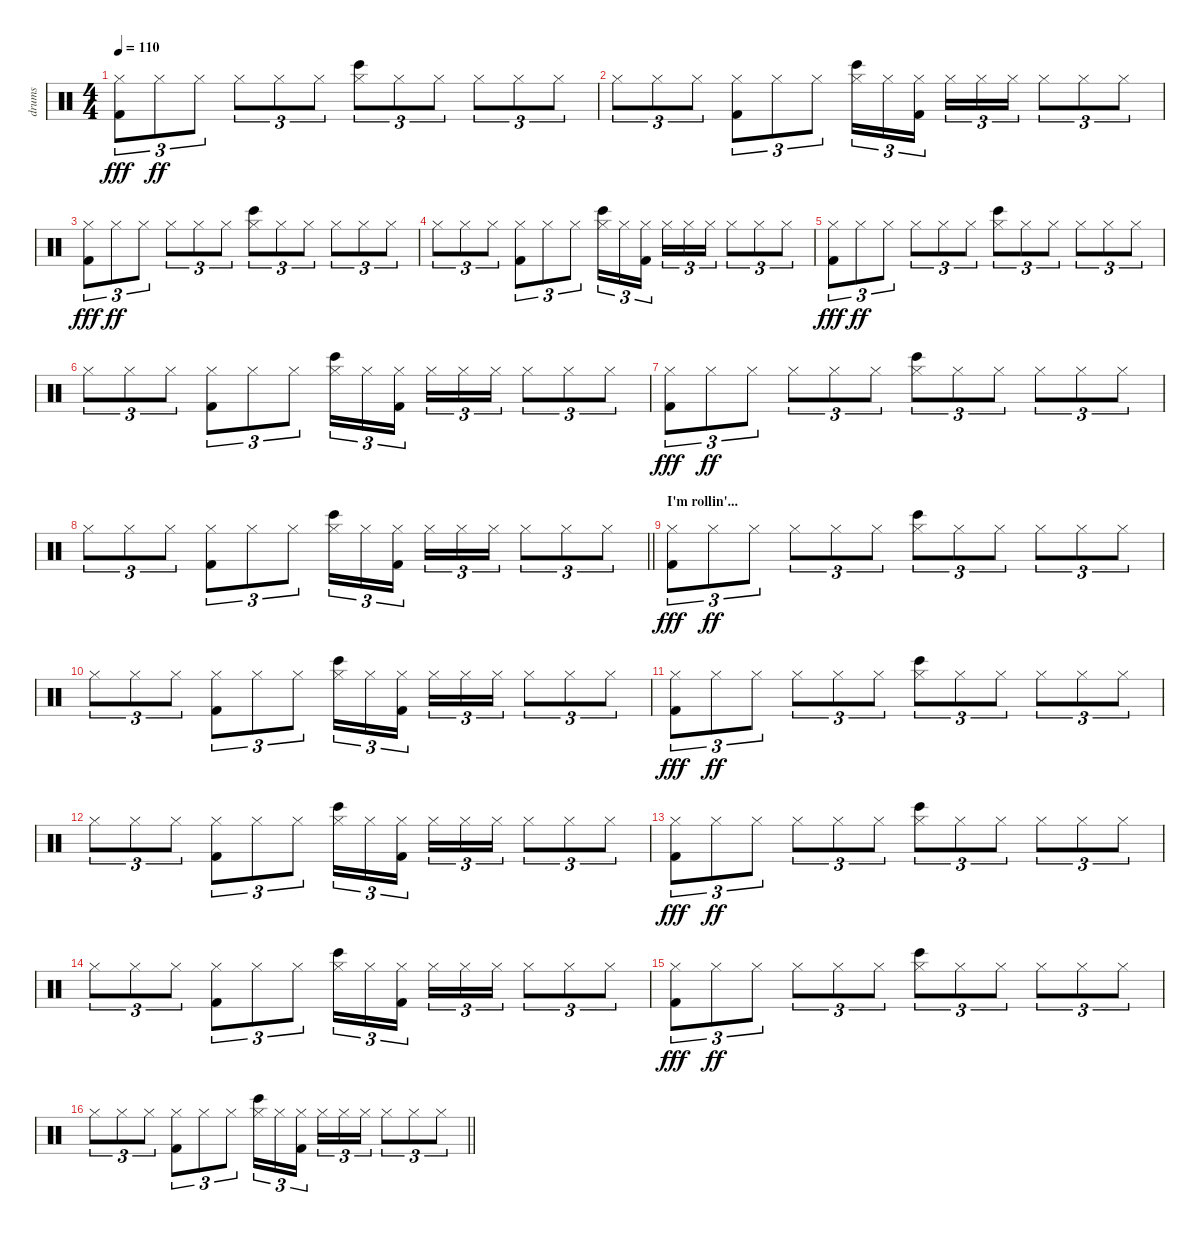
\track ("drums" "drums") {instrument percussion}
\staff {score}
\articulation defaults
\ts (4 4)
\section ("" "")
\tempo 110
\clef neutral
\ks c
("Hi-Hat (closed)" "Kick (hit) 2").8{tu (3 2) dy fff} "Hi-Hat (closed)".8{tu (3 2) dy ff} "Hi-Hat (closed)".8{tu (3 2)} "Hi-Hat (closed)".8{tu (3 2)} "Hi-Hat (closed)".8{tu (3 2)} "Hi-Hat (closed)".8{tu (3 2)} ("Hi-Hat (closed)" "Bongo High (hit)").8{tu (3 2)} "Hi-Hat (closed)".8{tu (3 2)} "Hi-Hat (closed)".8{tu (3 2)} "Hi-Hat (closed)".8{tu (3 2)} "Hi-Hat (closed)".8{tu (3 2)} "Hi-Hat (closed)".8{tu (3 2)} |
"Hi-Hat (closed)".8{tu (3 2)} "Hi-Hat (closed)".8{tu (3 2)} "Hi-Hat (closed)".8{tu (3 2)} ("Hi-Hat (closed)" "Kick (hit) 2").8{tu (3 2)} "Hi-Hat (closed)".8{tu (3 2)} "Hi-Hat (closed)".8{tu (3 2)} ("Hi-Hat (closed)" "Bongo High (hit)").16{tu (3 2)} "Hi-Hat (closed)".16{tu (3 2)} ("Hi-Hat (closed)" "Kick (hit) 2").16{tu (3 2) beam splitsecondary} "Hi-Hat (closed)".16{tu (3 2)} "Hi-Hat (closed)".16{tu (3 2)} "Hi-Hat (closed)".16{tu (3 2)} "Hi-Hat (closed)".8{tu (3 2)} "Hi-Hat (closed)".8{tu (3 2)} "Hi-Hat (closed)".8{tu (3 2)} |
("Hi-Hat (closed)" "Kick (hit) 2").8{tu (3 2) dy fff} "Hi-Hat (closed)".8{tu (3 2) dy ff} "Hi-Hat (closed)".8{tu (3 2)} "Hi-Hat (closed)".8{tu (3 2)} "Hi-Hat (closed)".8{tu (3 2)} "Hi-Hat (closed)".8{tu (3 2)} ("Hi-Hat (closed)" "Bongo High (hit)").8{tu (3 2)} "Hi-Hat (closed)".8{tu (3 2)} "Hi-Hat (closed)".8{tu (3 2)} "Hi-Hat (closed)".8{tu (3 2)} "Hi-Hat (closed)".8{tu (3 2)} "Hi-Hat (closed)".8{tu (3 2)} |
"Hi-Hat (closed)".8{tu (3 2)} "Hi-Hat (closed)".8{tu (3 2)} "Hi-Hat (closed)".8{tu (3 2)} ("Hi-Hat (closed)" "Kick (hit) 2").8{tu (3 2)} "Hi-Hat (closed)".8{tu (3 2)} "Hi-Hat (closed)".8{tu (3 2)} ("Hi-Hat (closed)" "Bongo High (hit)").16{tu (3 2)} "Hi-Hat (closed)".16{tu (3 2)} ("Hi-Hat (closed)" "Kick (hit) 2").16{tu (3 2) beam splitsecondary} "Hi-Hat (closed)".16{tu (3 2)} "Hi-Hat (closed)".16{tu (3 2)} "Hi-Hat (closed)".16{tu (3 2)} "Hi-Hat (closed)".8{tu (3 2)} "Hi-Hat (closed)".8{tu (3 2)} "Hi-Hat (closed)".8{tu (3 2)} |
("Hi-Hat (closed)" "Kick (hit) 2").8{tu (3 2) dy fff} "Hi-Hat (closed)".8{tu (3 2) dy ff} "Hi-Hat (closed)".8{tu (3 2)} "Hi-Hat (closed)".8{tu (3 2)} "Hi-Hat (closed)".8{tu (3 2)} "Hi-Hat (closed)".8{tu (3 2)} ("Hi-Hat (closed)" "Bongo High (hit)").8{tu (3 2)} "Hi-Hat (closed)".8{tu (3 2)} "Hi-Hat (closed)".8{tu (3 2)} "Hi-Hat (closed)".8{tu (3 2)} "Hi-Hat (closed)".8{tu (3 2)} "Hi-Hat (closed)".8{tu (3 2)} |
"Hi-Hat (closed)".8{tu (3 2)} "Hi-Hat (closed)".8{tu (3 2)} "Hi-Hat (closed)".8{tu (3 2)} ("Hi-Hat (closed)" "Kick (hit) 2").8{tu (3 2)} "Hi-Hat (closed)".8{tu (3 2)} "Hi-Hat (closed)".8{tu (3 2)} ("Hi-Hat (closed)" "Bongo High (hit)").16{tu (3 2)} "Hi-Hat (closed)".16{tu (3 2)} ("Hi-Hat (closed)" "Kick (hit) 2").16{tu (3 2) beam splitsecondary} "Hi-Hat (closed)".16{tu (3 2)} "Hi-Hat (closed)".16{tu (3 2)} "Hi-Hat (closed)".16{tu (3 2)} "Hi-Hat (closed)".8{tu (3 2)} "Hi-Hat (closed)".8{tu (3 2)} "Hi-Hat (closed)".8{tu (3 2)} |
("Hi-Hat (closed)" "Kick (hit) 2").8{tu (3 2) dy fff} "Hi-Hat (closed)".8{tu (3 2) dy ff} "Hi-Hat (closed)".8{tu (3 2)} "Hi-Hat (closed)".8{tu (3 2)} "Hi-Hat (closed)".8{tu (3 2)} "Hi-Hat (closed)".8{tu (3 2)} ("Hi-Hat (closed)" "Bongo High (hit)").8{tu (3 2)} "Hi-Hat (closed)".8{tu (3 2)} "Hi-Hat (closed)".8{tu (3 2)} "Hi-Hat (closed)".8{tu (3 2)} "Hi-Hat (closed)".8{tu (3 2)} "Hi-Hat (closed)".8{tu (3 2)} |
\barLineRight lightlight "Hi-Hat (closed)".8{tu (3 2)} "Hi-Hat (closed)".8{tu (3 2)} "Hi-Hat (closed)".8{tu (3 2)}
("Hi-Hat (closed)" "Kick (hit) 2").8{tu (3 2)} "Hi-Hat (closed)".8{tu (3 2)} "Hi-Hat (closed)".8{tu (3 2)} ("Hi-Hat (closed)" "Bongo High (hit)").16{tu (3 2)} "Hi-Hat (closed)".16{tu (3 2)} ("Hi-Hat (closed)" "Kick (hit) 2").16{tu (3 2) beam splitsecondary} "Hi-Hat (closed)".16{tu (3 2)} "Hi-Hat (closed)".16{tu (3 2)} "Hi-Hat (closed)".16{tu (3 2)} "Hi-Hat (closed)".8{tu (3 2)} "Hi-Hat (closed)".8{tu (3 2)} "Hi-Hat (closed)".8{tu (3 2)} |
\section ("" "I'm rollin'...")
("Hi-Hat (closed)" "Kick (hit) 2").8{tu (3 2) dy fff} "Hi-Hat (closed)".8{tu (3 2) dy ff} "Hi-Hat (closed)".8{tu (3 2)} "Hi-Hat (closed)".8{tu (3 2)} "Hi-Hat (closed)".8{tu (3 2)} "Hi-Hat (closed)".8{tu (3 2)} ("Hi-Hat (closed)" "Bongo High (hit)").8{tu (3 2)} "Hi-Hat (closed)".8{tu (3 2)} "Hi-Hat (closed)".8{tu (3 2)} "Hi-Hat (closed)".8{tu (3 2)} "Hi-Hat (closed)".8{tu (3 2)} "Hi-Hat (closed)".8{tu (3 2)} |
"Hi-Hat (closed)".8{tu (3 2)} "Hi-Hat (closed)".8{tu (3 2)} "Hi-Hat (closed)".8{tu (3 2)} ("Hi-Hat (closed)" "Kick (hit) 2").8{tu (3 2)} "Hi-Hat (closed)".8{tu (3 2)} "Hi-Hat (closed)".8{tu (3 2)} ("Hi-Hat (closed)" "Bongo High (hit)").16{tu (3 2)} "Hi-Hat (closed)".16{tu (3 2)} ("Hi-Hat (closed)" "Kick (hit) 2").16{tu (3 2) beam splitsecondary} "Hi-Hat (closed)".16{tu (3 2)} "Hi-Hat (closed)".16{tu (3 2)} "Hi-Hat (closed)".16{tu (3 2)} "Hi-Hat (closed)".8{tu (3 2)} "Hi-Hat (closed)".8{tu (3 2)} "Hi-Hat (closed)".8{tu (3 2)} |
("Hi-Hat (closed)" "Kick (hit) 2").8{tu (3 2) dy fff} "Hi-Hat (closed)".8{tu (3 2) dy ff} "Hi-Hat (closed)".8{tu (3 2)} "Hi-Hat (closed)".8{tu (3 2)} "Hi-Hat (closed)".8{tu (3 2)} "Hi-Hat (closed)".8{tu (3 2)} ("Hi-Hat (closed)" "Bongo High (hit)").8{tu (3 2)} "Hi-Hat (closed)".8{tu (3 2)} "Hi-Hat (closed)".8{tu (3 2)} "Hi-Hat (closed)".8{tu (3 2)} "Hi-Hat (closed)".8{tu (3 2)} "Hi-Hat (closed)".8{tu (3 2)} |
"Hi-Hat (closed)".8{tu (3 2)} "Hi-Hat (closed)".8{tu (3 2)} "Hi-Hat (closed)".8{tu (3 2)} ("Hi-Hat (closed)" "Kick (hit) 2").8{tu (3 2)} "Hi-Hat (closed)".8{tu (3 2)} "Hi-Hat (closed)".8{tu (3 2)} ("Hi-Hat (closed)" "Bongo High (hit)").16{tu (3 2)} "Hi-Hat (closed)".16{tu (3 2)} ("Hi-Hat (closed)" "Kick (hit) 2").16{tu (3 2) beam splitsecondary} "Hi-Hat (closed)".16{tu (3 2)} "Hi-Hat (closed)".16{tu (3 2)} "Hi-Hat (closed)".16{tu (3 2)} "Hi-Hat (closed)".8{tu (3 2)} "Hi-Hat (closed)".8{tu (3 2)} "Hi-Hat (closed)".8{tu (3 2)} |
("Hi-Hat (closed)" "Kick (hit) 2").8{tu (3 2) dy fff} "Hi-Hat (closed)".8{tu (3 2) dy ff} "Hi-Hat (closed)".8{tu (3 2)} "Hi-Hat (closed)".8{tu (3 2)} "Hi-Hat (closed)".8{tu (3 2)} "Hi-Hat (closed)".8{tu (3 2)} ("Hi-Hat (closed)" "Bongo High (hit)").8{tu (3 2)} "Hi-Hat (closed)".8{tu (3 2)} "Hi-Hat (closed)".8{tu (3 2)} "Hi-Hat (closed)".8{tu (3 2)} "Hi-Hat (closed)".8{tu (3 2)} "Hi-Hat (closed)".8{tu (3 2)} |
"Hi-Hat (closed)".8{tu (3 2)} "Hi-Hat (closed)".8{tu (3 2)} "Hi-Hat (closed)".8{tu (3 2)} ("Hi-Hat (closed)" "Kick (hit) 2").8{tu (3 2)} "Hi-Hat (closed)".8{tu (3 2)} "Hi-Hat (closed)".8{tu (3 2)} ("Hi-Hat (closed)" "Bongo High (hit)").16{tu (3 2)} "Hi-Hat (closed)".16{tu (3 2)} ("Hi-Hat (closed)" "Kick (hit) 2").16{tu (3 2) beam splitsecondary} "Hi-Hat (closed)".16{tu (3 2)} "Hi-Hat (closed)".16{tu (3 2)} "Hi-Hat (closed)".16{tu (3 2)} "Hi-Hat (closed)".8{tu (3 2)} "Hi-Hat (closed)".8{tu (3 2)} "Hi-Hat (closed)".8{tu (3 2)} |
("Hi-Hat (closed)" "Kick (hit) 2").8{tu (3 2) dy fff} "Hi-Hat (closed)".8{tu (3 2) dy ff} "Hi-Hat (closed)".8{tu (3 2)} "Hi-Hat (closed)".8{tu (3 2)} "Hi-Hat (closed)".8{tu (3 2)} "Hi-Hat (closed)".8{tu (3 2)} ("Hi-Hat (closed)" "Bongo High (hit)").8{tu (3 2)} "Hi-Hat (closed)".8{tu (3 2)} "Hi-Hat (closed)".8{tu (3 2)} "Hi-Hat (closed)".8{tu (3 2)} "Hi-Hat (closed)".8{tu (3 2)} "Hi-Hat (closed)".8{tu (3 2)} |
\barLineRight lightlight "Hi-Hat (closed)".8{tu (3 2)} "Hi-Hat (closed)".8{tu (3 2)} "Hi-Hat (closed)".8{tu (3 2)}
("Hi-Hat (closed)" "Kick (hit) 2").8{tu (3 2)} "Hi-Hat (closed)".8{tu (3 2)} "Hi-Hat (closed)".8{tu (3 2)} ("Hi-Hat (closed)" "Bongo High (hit)").16{tu (3 2)} "Hi-Hat (closed)".16{tu (3 2)} ("Hi-Hat (closed)" "Kick (hit) 2").16{tu (3 2) beam splitsecondary} "Hi-Hat (closed)".16{tu (3 2)} "Hi-Hat (closed)".16{tu (3 2)} "Hi-Hat (closed)".16{tu (3 2)} "Hi-Hat (closed)".8{tu (3 2)} "Hi-Hat (closed)".8{tu (3 2)} "Hi-Hat (closed)".8{tu (3 2)}
